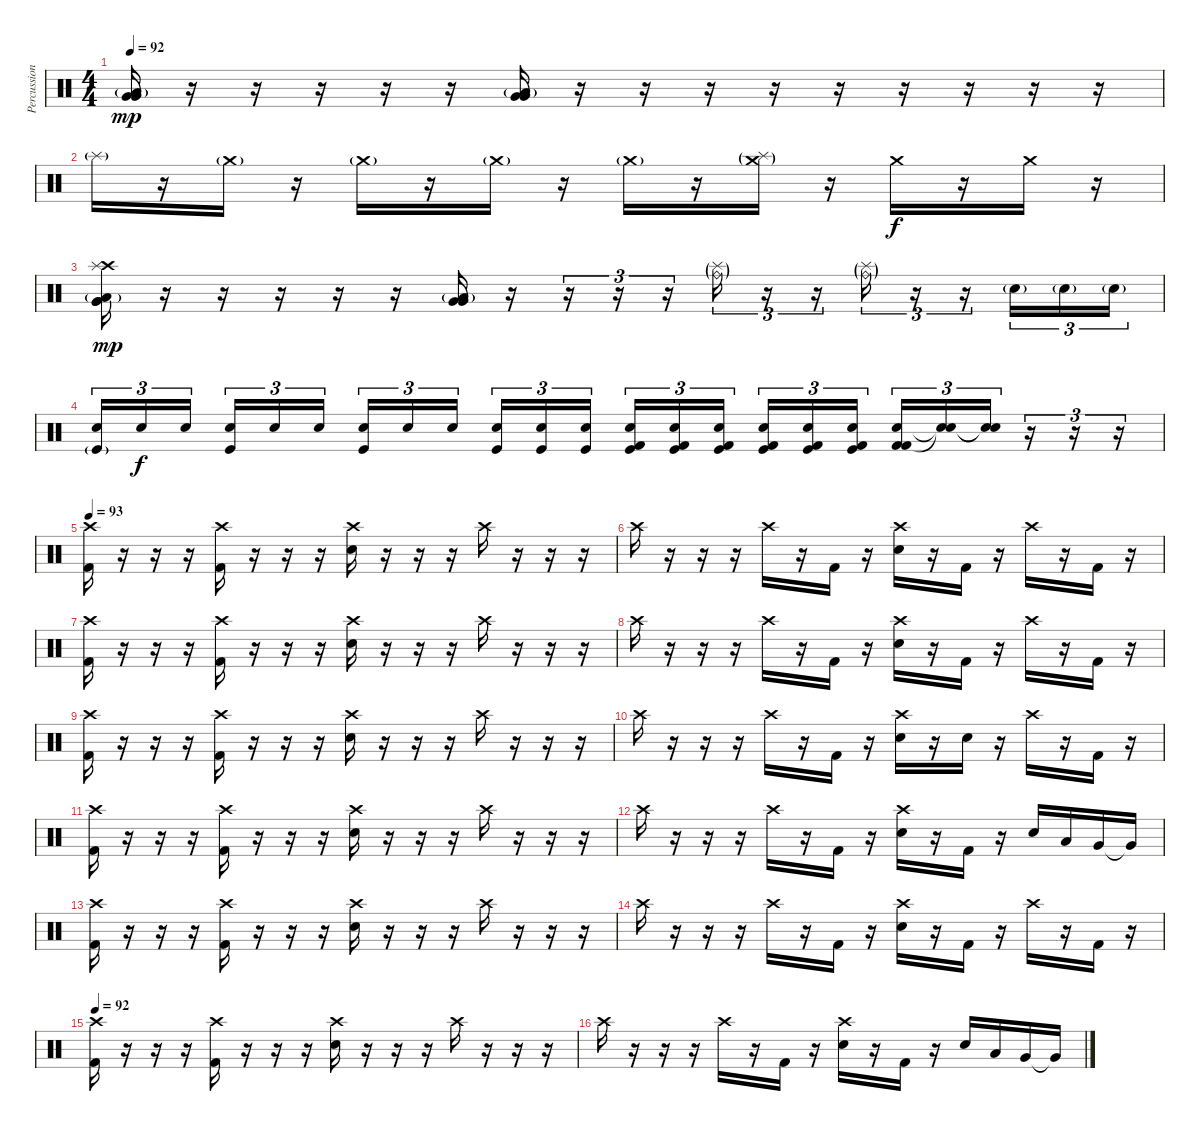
\track ("Percussion" "Percussion") {instrument percussion}
\staff {score}
\articulation defaults
\ts (4 4)
\tempo 92
\clef neutral
\ks c
("Very Low Tom (hit)" "Very Low Tom (hit)" "Low Floor Tom (hit)"{g}).16{dy mp} r.16 r.16 r.16 r.16 r.16 ("Very Low Tom (hit)" "Very Low Tom (hit)" "Low Floor Tom (hit)"{g}).16 r.16 r.16 r.16 r.16 r.16 r.16 r.16 r.16 r.16 |
"Splash (hit)"{g}.16 r.16 "Crash medium (hit)"{g}.16 r.16 "Crash medium (hit)"{g}.16 r.16 "Crash medium (hit)"{g}.16 r.16 "Crash medium (hit)"{g}.16 r.16 ("Crash medium (hit)"{g} "Splash (hit)"{g}).16 r.16 "Crash medium (hit)".16{dy f} r.16 "Crash medium (hit)".16 r.16 |
("Crash high (hit)" "Splash (hit)" "Very Low Tom (hit)" "Very Low Tom (hit)" "Low Floor Tom (hit)"{g}).16{dy mp} r.16 r.16 r.16 r.16 r.16 ("Very Low Tom (hit)" "Very Low Tom (hit)" "Low Floor Tom (hit)"{g}).16 r.16 r.16{tu (3 2)} r.16{tu (3 2)} r.16{tu (3 2)} ("Ride (bell)"{g} "Splash (hit)"{g}).16{tu (3 2)} r.16{tu (3 2)} r.16{tu (3 2)} ("Ride (bell)"{g} "Splash (hit)"{g}).16{tu (3 2)} r.16{tu (3 2)} r.16{tu (3 2)} "Snare (hit) 2"{g}.16{tu (3 2)} "Snare (hit) 2"{g}.16{tu (3 2)} "Snare (hit) 2"{g}.16{tu (3 2)} |
("Snare (hit) 2" "Kick (hit)"{g}).16{tu (3 2)} "Snare (hit) 2".16{tu (3 2) dy f} "Snare (hit) 2".16{tu (3 2) beam splitsecondary} ("Snare (hit) 2" "Kick (hit)").16{tu (3 2)} "Snare (hit) 2".16{tu (3 2)} "Snare (hit) 2".16{tu (3 2)} ("Snare (hit) 2" "Kick (hit)").16{tu (3 2)} "Snare (hit) 2".16{tu (3 2)} "Snare (hit) 2".16{tu (3 2) beam splitsecondary} ("Snare (hit) 2" "Kick (hit)").16{tu (3 2)} ("Snare (hit) 2" "Kick (hit)").16{tu (3 2)} ("Snare (hit) 2" "Kick (hit)").16{tu (3 2)} ("Snare (hit) 2" "Kick (hit) 2" "Kick (hit)").16{tu (3 2)} ("Snare (hit) 2" "Kick (hit) 2" "Kick (hit)").16{tu (3 2)} ("Snare (hit) 2" "Kick (hit) 2" "Kick (hit)").16{tu (3 2) beam splitsecondary} ("Snare (hit) 2" "Kick (hit) 2" "Kick (hit)").16{tu (3 2)} ("Snare (hit) 2" "Kick (hit) 2" "Kick (hit)").16{tu (3 2)} ("Snare (hit) 2" "Kick (hit) 2" "Kick (hit)").16{tu (3 2)} ("Snare (hit) 2" "Kick (hit) 2" "Kick (hit) 2").16{tu (3 2)} ("Snare (hit)"{t} "Snare (hit)"{t}).16{tu (3 2)} ("Snare (hit)"{t} "Snare (hit)"{t}).16{tu (3 2)} r.16{tu (3 2)} r.16{tu (3 2)} r.16{tu (3 2)} |
\tempo 93
("Crash high (hit)" "Kick (hit) 2").16 r.16 r.16 r.16 ("Crash high (hit)" "Kick (hit) 2").16 r.16 r.16 r.16 ("Crash high (hit)" "Snare (hit) 2").16 r.16 r.16 r.16 "Crash high (hit)".16 r.16 r.16 r.16 |
"Crash high (hit)".16 r.16 r.16 r.16 "Crash high (hit)".16 r.16 "Kick (hit) 2".16 r.16 ("Crash high (hit)" "Snare (hit) 2").16 r.16 "Kick (hit) 2".16 r.16 "Crash high (hit)".16 r.16 "Kick (hit) 2".16 r.16 |
("Crash high (hit)" "Kick (hit) 2").16 r.16 r.16 r.16 ("Crash high (hit)" "Kick (hit) 2").16 r.16 r.16 r.16 ("Crash high (hit)" "Snare (hit) 2").16 r.16 r.16 r.16 "Crash high (hit)".16 r.16 r.16 r.16 |
"Crash high (hit)".16 r.16 r.16 r.16 "Crash high (hit)".16 r.16 "Kick (hit) 2".16 r.16 ("Crash high (hit)" "Snare (hit) 2").16 r.16 "Kick (hit) 2".16 r.16 "Crash high (hit)".16 r.16 "Kick (hit) 2".16 r.16 |
("Crash high (hit)" "Kick (hit) 2").16 r.16 r.16 r.16 ("Crash high (hit)" "Kick (hit) 2").16 r.16 r.16 r.16 ("Crash high (hit)" "Snare (hit) 2").16 r.16 r.16 r.16 "Crash high (hit)".16 r.16 r.16 r.16 |
"Crash high (hit)".16 r.16 r.16 r.16 "Crash high (hit)".16 r.16 "Kick (hit) 2".16 r.16 ("Crash high (hit)" "Snare (hit) 2").16 r.16 "Snare (hit) 2".16 r.16 "Crash high (hit)".16 r.16 "Kick (hit) 2".16 r.16 |
("Crash high (hit)" "Kick (hit) 2").16 r.16 r.16 r.16 ("Crash high (hit)" "Kick (hit) 2").16 r.16 r.16 r.16 ("Crash high (hit)" "Snare (hit) 2").16 r.16 r.16 r.16 "Crash high (hit)".16 r.16 r.16 r.16 |
"Crash high (hit)".16 r.16 r.16 r.16 "Crash high (hit)".16 r.16 "Kick (hit) 2".16 r.16 ("Crash high (hit)" "Snare (hit) 2").16 r.16 "Kick (hit) 2".16 r.16 "Snare (hit) 2".16 "Low Tom (hit)".16 "Very Low Tom (hit)".16 "Very Low Tom (hit)"{t}.16 |
("Crash high (hit)" "Kick (hit) 2").16 r.16 r.16 r.16 ("Crash high (hit)" "Kick (hit) 2").16 r.16 r.16 r.16 ("Crash high (hit)" "Snare (hit) 2").16 r.16 r.16 r.16 "Crash high (hit)".16 r.16 r.16 r.16 |
"Crash high (hit)".16 r.16 r.16 r.16 "Crash high (hit)".16 r.16 "Kick (hit) 2".16 r.16 ("Crash high (hit)" "Snare (hit) 2").16 r.16 "Kick (hit) 2".16 r.16 "Crash high (hit)".16 r.16 "Kick (hit) 2".16 r.16 |
\tempo 92
("Crash high (hit)" "Kick (hit) 2").16 r.16 r.16 r.16 ("Crash high (hit)" "Kick (hit) 2").16 r.16 r.16 r.16 ("Crash high (hit)" "Snare (hit) 2").16 r.16 r.16 r.16 "Crash high (hit)".16 r.16 r.16 r.16 |
"Crash high (hit)".16 r.16 r.16 r.16 "Crash high (hit)".16 r.16 "Kick (hit) 2".16 r.16 ("Crash high (hit)" "Snare (hit) 2").16 r.16 "Kick (hit) 2".16 r.16 "Snare (hit) 2".16 "Low Tom (hit)".16 "Very Low Tom (hit)".16 "Very Low Tom (hit)"{t}.16
